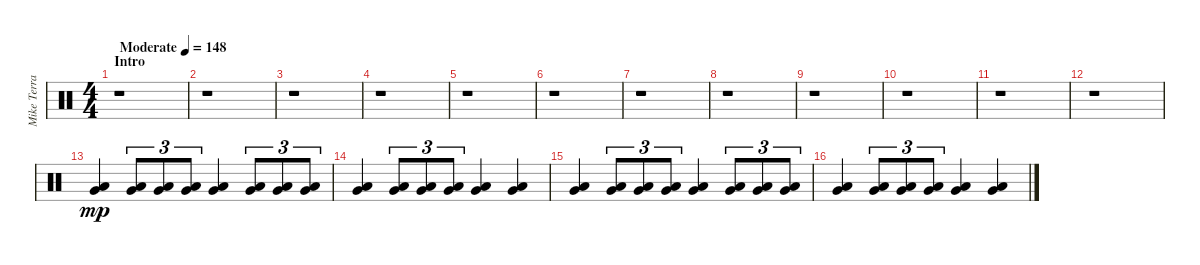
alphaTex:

\track ("Mike Terrana" "Mike Terra") {instrument percussion}
\staff {score}
\articulation defaults
\ts (4 4)
\section ("" "Intro")
\tempo (148 "Moderate")
\clef neutral
\ks c
r.1{dy mp} |
r.1 |
r.1 |
r.1 |
r.1 |
r.1 |
r.1 |
r.1 |
r.1 |
r.1 |
r.1 |
r.1 |
("Low Tom (hit)" "Very Low Tom (hit)").4 ("Low Tom (hit)" "Very Low Tom (hit)").8{tu (3 2)} ("Low Tom (hit)" "Very Low Tom (hit)").8{tu (3 2)} ("Low Tom (hit)" "Very Low Tom (hit)").8{tu (3 2)} ("Low Tom (hit)" "Very Low Tom (hit)").4 ("Low Tom (hit)" "Very Low Tom (hit)").8{tu (3 2)} ("Low Tom (hit)" "Very Low Tom (hit)").8{tu (3 2)} ("Low Tom (hit)" "Very Low Tom (hit)").8{tu (3 2)} |
("Low Tom (hit)" "Very Low Tom (hit)").4 ("Low Tom (hit)" "Very Low Tom (hit)").8{tu (3 2)} ("Low Tom (hit)" "Very Low Tom (hit)").8{tu (3 2)} ("Low Tom (hit)" "Very Low Tom (hit)").8{tu (3 2)} ("Low Tom (hit)" "Very Low Tom (hit)").4 ("Low Tom (hit)" "Very Low Tom (hit)").4 |
("Low Tom (hit)" "Very Low Tom (hit)").4 ("Low Tom (hit)" "Very Low Tom (hit)").8{tu (3 2)} ("Low Tom (hit)" "Very Low Tom (hit)").8{tu (3 2)} ("Low Tom (hit)" "Very Low Tom (hit)").8{tu (3 2)} ("Low Tom (hit)" "Very Low Tom (hit)").4 ("Low Tom (hit)" "Very Low Tom (hit)").8{tu (3 2)} ("Low Tom (hit)" "Very Low Tom (hit)").8{tu (3 2)} ("Low Tom (hit)" "Very Low Tom (hit)").8{tu (3 2)} |
("Low Tom (hit)" "Very Low Tom (hit)").4 ("Low Tom (hit)" "Very Low Tom (hit)").8{tu (3 2)} ("Low Tom (hit)" "Very Low Tom (hit)").8{tu (3 2)} ("Low Tom (hit)" "Very Low Tom (hit)").8{tu (3 2)} ("Low Tom (hit)" "Very Low Tom (hit)").4 ("Low Tom (hit)" "Very Low Tom (hit)").4
